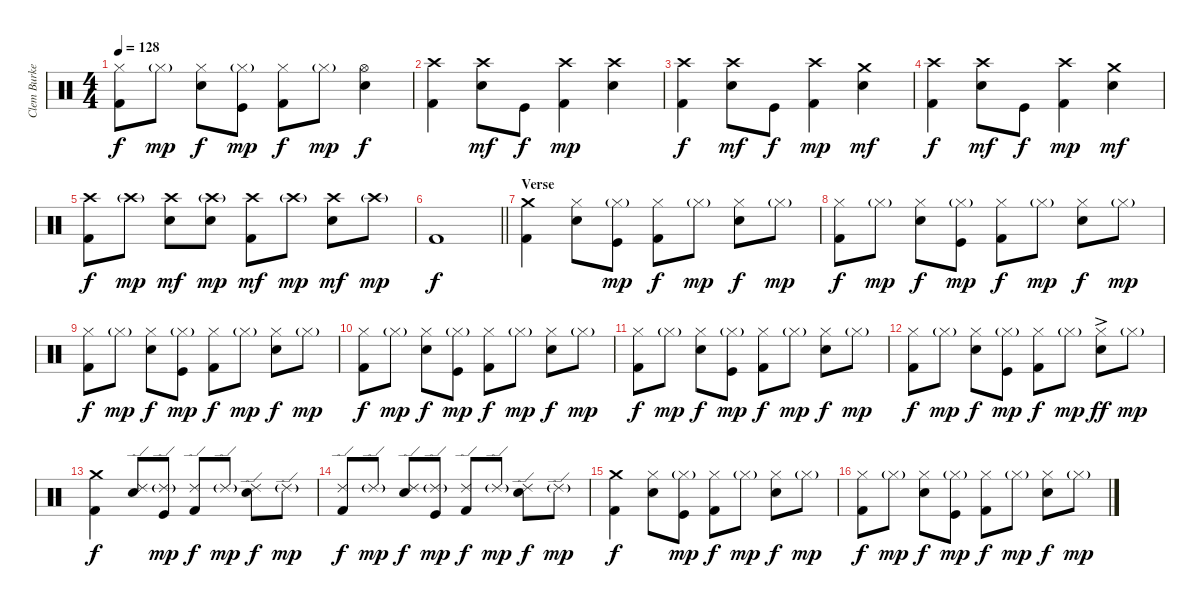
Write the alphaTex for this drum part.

\track ("Clem Burke" "Clem Burke") {instrument percussion}
\staff {score}
\articulation defaults
\ts (4 4)
\tempo 128
\clef neutral
\ks c
("Hi-Hat (closed)" "Kick (hit) 2").8{dy f} "Hi-Hat (closed)"{g}.8{dy mp} ("Hi-Hat (closed)" "Electric Snare (hit)").8{dy f} ("Hi-Hat (closed)"{g} "Kick (hit)").8{dy mp} ("Hi-Hat (closed)" "Kick (hit) 2").8{dy f} "Hi-Hat (closed)"{g}.8{dy mp} ("Hi-Hat (open)" "Electric Snare (hit)").4{dy f} |
("Crash high (hit)" "Kick (hit) 2").4 ("Crash high (hit)" "Electric Snare (hit)").8{dy mf} "Kick (hit)".8{dy f} ("Crash high (hit)" "Kick (hit) 2").4{dy mp} ("Crash high (hit)" "Electric Snare (hit)").4 |
("Crash high (hit)" "Kick (hit) 2").4{dy f} ("Crash high (hit)" "Electric Snare (hit)").8{dy mf} "Kick (hit)".8{dy f} ("Crash high (hit)" "Kick (hit) 2").4{dy mp} ("Crash medium (hit)" "Electric Snare (hit)").4{dy mf} |
("Crash high (hit)" "Kick (hit) 2").4{dy f} ("Crash high (hit)" "Electric Snare (hit)").8{dy mf} "Kick (hit)".8{dy f} ("Crash high (hit)" "Kick (hit) 2").4{dy mp} ("Crash medium (hit)" "Electric Snare (hit)").4{dy mf} |
("Crash high (hit)" "Kick (hit) 2").8{dy f} "Crash high (hit)"{g}.8{dy mp} ("Crash high (hit)" "Electric Snare (hit)").8{dy mf} ("Crash high (hit)"{g} "Electric Snare (hit)").8{dy mp} ("Crash high (hit)" "Kick (hit) 2").8{dy mf} "Crash high (hit)"{g}.8{dy mp} ("Crash high (hit)" "Electric Snare (hit)").8{dy mf} "Crash high (hit)"{g}.8{dy mp} |
\barLineRight lightlight "Kick (hit) 2".1{dy f}
|
\section ("" "Verse")
("Crash medium (hit)" "Kick (hit) 2").4 ("Hi-Hat (closed)" "Electric Snare (hit)").8 ("Hi-Hat (closed)"{g} "Kick (hit)").8{dy mp} ("Hi-Hat (closed)" "Kick (hit) 2").8{dy f} "Hi-Hat (closed)"{g}.8{dy mp} ("Hi-Hat (closed)" "Electric Snare (hit)").8{dy f} "Hi-Hat (closed)"{g}.8{dy mp} |
("Hi-Hat (closed)" "Kick (hit) 2").8{dy f} "Hi-Hat (closed)"{g}.8{dy mp} ("Hi-Hat (closed)" "Electric Snare (hit)").8{dy f} ("Hi-Hat (closed)"{g} "Kick (hit)").8{dy mp} ("Hi-Hat (closed)" "Kick (hit) 2").8{dy f} "Hi-Hat (closed)"{g}.8{dy mp} ("Hi-Hat (closed)" "Electric Snare (hit)").8{dy f} "Hi-Hat (closed)"{g}.8{dy mp} |
("Hi-Hat (closed)" "Kick (hit) 2").8{dy f} "Hi-Hat (closed)"{g}.8{dy mp} ("Hi-Hat (closed)" "Electric Snare (hit)").8{dy f} ("Hi-Hat (closed)"{g} "Kick (hit)").8{dy mp} ("Hi-Hat (closed)" "Kick (hit) 2").8{dy f} "Hi-Hat (closed)"{g}.8{dy mp} ("Hi-Hat (closed)" "Electric Snare (hit)").8{dy f} "Hi-Hat (closed)"{g}.8{dy mp} |
("Hi-Hat (closed)" "Kick (hit) 2").8{dy f} "Hi-Hat (closed)"{g}.8{dy mp} ("Hi-Hat (closed)" "Electric Snare (hit)").8{dy f} ("Hi-Hat (closed)"{g} "Kick (hit)").8{dy mp} ("Hi-Hat (closed)" "Kick (hit) 2").8{dy f} "Hi-Hat (closed)"{g}.8{dy mp} ("Hi-Hat (closed)" "Electric Snare (hit)").8{dy f} "Hi-Hat (closed)"{g}.8{dy mp} |
("Hi-Hat (closed)" "Kick (hit) 2").8{dy f} "Hi-Hat (closed)"{g}.8{dy mp} ("Hi-Hat (closed)" "Electric Snare (hit)").8{dy f} ("Hi-Hat (closed)"{g} "Kick (hit)").8{dy mp} ("Hi-Hat (closed)" "Kick (hit) 2").8{dy f} "Hi-Hat (closed)"{g}.8{dy mp} ("Hi-Hat (closed)" "Electric Snare (hit)").8{dy f} "Hi-Hat (closed)"{g}.8{dy mp} |
("Hi-Hat (closed)" "Kick (hit) 2").8{dy f} "Hi-Hat (closed)"{g}.8{dy mp} ("Hi-Hat (closed)" "Electric Snare (hit)").8{dy f} ("Hi-Hat (closed)"{g} "Kick (hit)").8{dy mp} ("Hi-Hat (closed)" "Kick (hit) 2").8{dy f} "Hi-Hat (closed)"{g}.8{dy mp} ("Hi-Hat (closed)"{ac} "Electric Snare (hit)").8{dy ff} "Hi-Hat (closed)"{g}.8{dy mp} |
("Crash medium (hit)" "Kick (hit) 2").4{dy f} ("Ride (edge) 2" "Electric Snare (hit)").8 ("Ride (edge) 2"{g} "Kick (hit)").8{dy mp} ("Ride (edge) 2" "Kick (hit) 2").8{dy f} "Ride (edge) 2"{g}.8{dy mp} ("Ride (edge) 2" "Electric Snare (hit)").8{dy f} "Ride (edge) 2"{g}.8{dy mp} |
("Ride (edge) 2" "Kick (hit) 2").8{dy f} "Ride (edge) 2"{g}.8{dy mp} ("Ride (edge) 2" "Electric Snare (hit)").8{dy f} ("Ride (edge) 2"{g} "Kick (hit)").8{dy mp} ("Ride (edge) 2" "Kick (hit) 2").8{dy f} "Ride (edge) 2"{g}.8{dy mp} ("Ride (edge) 2" "Electric Snare (hit)").8{dy f} "Ride (edge) 2"{g}.8{dy mp} |
("Crash medium (hit)" "Kick (hit) 2").4{dy f} ("Hi-Hat (closed)" "Electric Snare (hit)").8 ("Hi-Hat (closed)"{g} "Kick (hit)").8{dy mp} ("Hi-Hat (closed)" "Kick (hit) 2").8{dy f} "Hi-Hat (closed)"{g}.8{dy mp} ("Hi-Hat (closed)" "Electric Snare (hit)").8{dy f} "Hi-Hat (closed)"{g}.8{dy mp} |
("Hi-Hat (closed)" "Kick (hit) 2").8{dy f} "Hi-Hat (closed)"{g}.8{dy mp} ("Hi-Hat (closed)" "Electric Snare (hit)").8{dy f} ("Hi-Hat (closed)"{g} "Kick (hit)").8{dy mp} ("Hi-Hat (closed)" "Kick (hit) 2").8{dy f} "Hi-Hat (closed)"{g}.8{dy mp} ("Hi-Hat (closed)" "Electric Snare (hit)").8{dy f} "Hi-Hat (closed)"{g}.8{dy mp}
